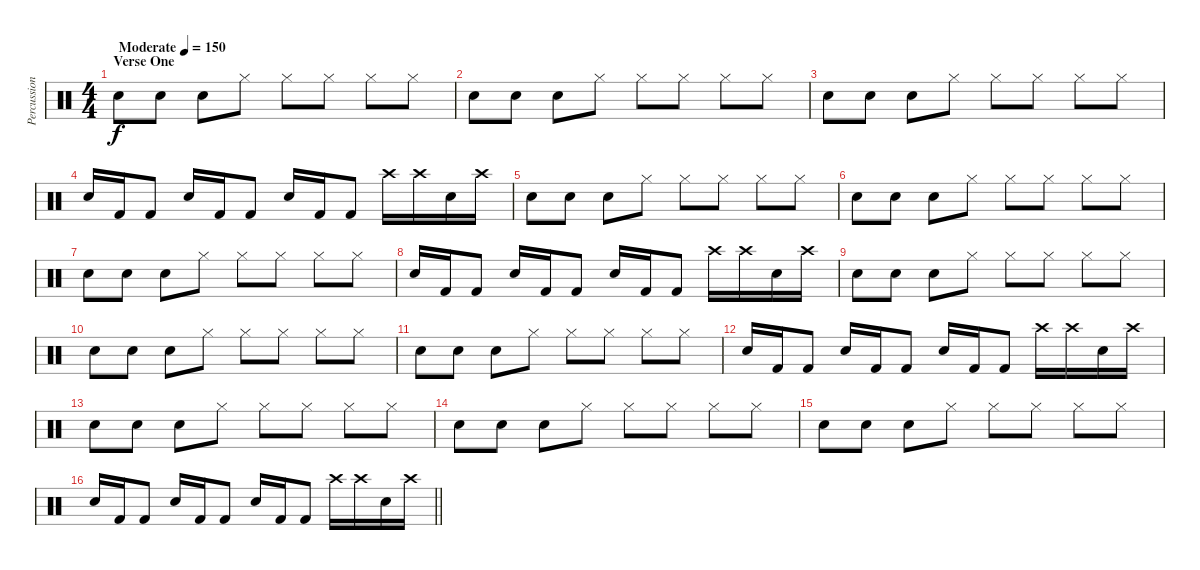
\track ("Percussion" "Percussion") {instrument percussion}
\staff {score}
\articulation defaults
\ts (4 4)
\section ("" "Verse One")
\tempo (150 "Moderate")
\clef neutral
\ks c "Electric Snare (hit)".8{dy f} "Electric Snare (hit)".8 "Electric Snare (hit)".8 "Hi-Hat (closed)".8 "Hi-Hat (closed)".8 "Hi-Hat (closed)".8 "Hi-Hat (closed)".8 "Hi-Hat (closed)".8
|
"Electric Snare (hit)".8 "Electric Snare (hit)".8 "Electric Snare (hit)".8 "Hi-Hat (closed)".8 "Hi-Hat (closed)".8 "Hi-Hat (closed)".8 "Hi-Hat (closed)".8 "Hi-Hat (closed)".8 |
"Electric Snare (hit)".8 "Electric Snare (hit)".8 "Electric Snare (hit)".8 "Hi-Hat (closed)".8 "Hi-Hat (closed)".8 "Hi-Hat (closed)".8 "Hi-Hat (closed)".8 "Hi-Hat (closed)".8 |
"Electric Snare (hit)".16 "Kick (hit) 2".16 "Kick (hit) 2".8 "Electric Snare (hit)".16 "Kick (hit) 2".16 "Kick (hit) 2".8 "Electric Snare (hit)".16 "Kick (hit) 2".16 "Kick (hit) 2".8 "Crash high (hit)".16 "Crash high (hit)".16 "Snare (hit) 2".16 "Crash high (hit)".16 |
"Electric Snare (hit)".8 "Electric Snare (hit)".8 "Electric Snare (hit)".8 "Hi-Hat (closed)".8 "Hi-Hat (closed)".8 "Hi-Hat (closed)".8 "Hi-Hat (closed)".8 "Hi-Hat (closed)".8 |
"Electric Snare (hit)".8 "Electric Snare (hit)".8 "Electric Snare (hit)".8 "Hi-Hat (closed)".8 "Hi-Hat (closed)".8 "Hi-Hat (closed)".8 "Hi-Hat (closed)".8 "Hi-Hat (closed)".8 |
"Electric Snare (hit)".8 "Electric Snare (hit)".8 "Electric Snare (hit)".8 "Hi-Hat (closed)".8 "Hi-Hat (closed)".8 "Hi-Hat (closed)".8 "Hi-Hat (closed)".8 "Hi-Hat (closed)".8 |
"Electric Snare (hit)".16 "Kick (hit) 2".16 "Kick (hit) 2".8 "Electric Snare (hit)".16 "Kick (hit) 2".16 "Kick (hit) 2".8 "Electric Snare (hit)".16 "Kick (hit) 2".16 "Kick (hit) 2".8 "Crash high (hit)".16 "Crash high (hit)".16 "Snare (hit) 2".16 "Crash high (hit)".16 |
"Electric Snare (hit)".8 "Electric Snare (hit)".8 "Electric Snare (hit)".8 "Hi-Hat (closed)".8 "Hi-Hat (closed)".8 "Hi-Hat (closed)".8 "Hi-Hat (closed)".8 "Hi-Hat (closed)".8 |
"Electric Snare (hit)".8 "Electric Snare (hit)".8 "Electric Snare (hit)".8 "Hi-Hat (closed)".8 "Hi-Hat (closed)".8 "Hi-Hat (closed)".8 "Hi-Hat (closed)".8 "Hi-Hat (closed)".8 |
"Electric Snare (hit)".8 "Electric Snare (hit)".8 "Electric Snare (hit)".8 "Hi-Hat (closed)".8 "Hi-Hat (closed)".8 "Hi-Hat (closed)".8 "Hi-Hat (closed)".8 "Hi-Hat (closed)".8 |
"Electric Snare (hit)".16 "Kick (hit) 2".16 "Kick (hit) 2".8 "Electric Snare (hit)".16 "Kick (hit) 2".16 "Kick (hit) 2".8 "Electric Snare (hit)".16 "Kick (hit) 2".16 "Kick (hit) 2".8 "Crash high (hit)".16 "Crash high (hit)".16 "Snare (hit) 2".16 "Crash high (hit)".16 |
"Electric Snare (hit)".8 "Electric Snare (hit)".8 "Electric Snare (hit)".8 "Hi-Hat (closed)".8 "Hi-Hat (closed)".8 "Hi-Hat (closed)".8 "Hi-Hat (closed)".8 "Hi-Hat (closed)".8 |
"Electric Snare (hit)".8 "Electric Snare (hit)".8 "Electric Snare (hit)".8 "Hi-Hat (closed)".8 "Hi-Hat (closed)".8 "Hi-Hat (closed)".8 "Hi-Hat (closed)".8 "Hi-Hat (closed)".8 |
"Electric Snare (hit)".8 "Electric Snare (hit)".8 "Electric Snare (hit)".8 "Hi-Hat (closed)".8 "Hi-Hat (closed)".8 "Hi-Hat (closed)".8 "Hi-Hat (closed)".8 "Hi-Hat (closed)".8 |
\barLineRight lightlight "Electric Snare (hit)".16 "Kick (hit) 2".16 "Kick (hit) 2".8 "Electric Snare (hit)".16 "Kick (hit) 2".16 "Kick (hit) 2".8 "Electric Snare (hit)".16 "Kick (hit) 2".16 "Kick (hit) 2".8 "Crash high (hit)".16 "Crash high (hit)".16 "Snare (hit) 2".16 "Crash high (hit)".16
